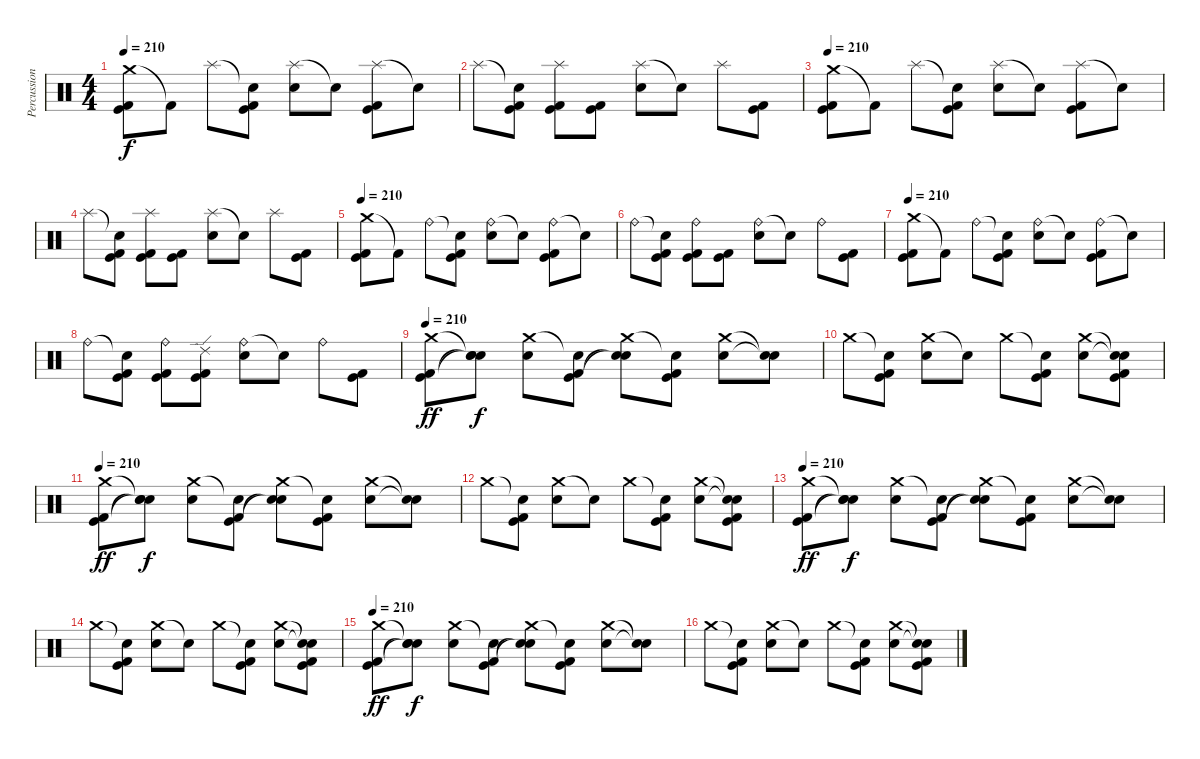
\track ("Percussion" "Percussion") {instrument percussion}
\staff {score}
\articulation defaults
\ts (4 4)
\tempo 210
\clef neutral
\ks c
("Crash medium (hit)" "Kick (hit)" "Kick (hit) 2").8{dy f} "Kick (hit) 2"{t}.8 "Splash (hit)".8 ("Snare (hit)"{t} "Kick (hit)" "Kick (hit) 2").8 ("Splash (hit)" "Electric Snare (hit)").8 "Snare (hit)"{t}.8 ("Splash (hit)" "Kick (hit)" "Kick (hit) 2").8 "Snare (hit)"{t}.8 |
"Splash (hit)".8 ("Snare (hit)"{t} "Kick (hit)" "Kick (hit) 2").8 ("Splash (hit)" "Kick (hit)" "Kick (hit) 2").8 ("Kick (hit)" "Kick (hit) 2").8 ("Splash (hit)" "Electric Snare (hit)").8 "Snare (hit)"{t}.8 "Splash (hit)".8 ("Kick (hit)" "Kick (hit) 2").8 |
\tempo 210
("Crash medium (hit)" "Kick (hit)" "Kick (hit) 2").8 "Kick (hit) 2"{t}.8 "Splash (hit)".8 ("Snare (hit)"{t} "Kick (hit)" "Kick (hit) 2").8 ("Splash (hit)" "Electric Snare (hit)").8 "Snare (hit)"{t}.8 ("Splash (hit)" "Kick (hit)" "Kick (hit) 2").8 "Snare (hit)"{t}.8 |
"Splash (hit)".8 ("Snare (hit)"{t} "Kick (hit)" "Kick (hit) 2").8 ("Splash (hit)" "Kick (hit)" "Kick (hit) 2").8 ("Kick (hit)" "Kick (hit) 2").8 ("Splash (hit)" "Electric Snare (hit)").8 "Snare (hit)"{t}.8 "Splash (hit)".8 ("Kick (hit)" "Kick (hit) 2").8 |
\tempo 210
("Crash medium (hit)" "Kick (hit)" "Kick (hit) 2").8 "Kick (hit) 2"{t}.8 "Ride (bell)".8 ("Snare (hit)"{t} "Kick (hit)" "Kick (hit) 2").8 ("Ride (bell)" "Electric Snare (hit)").8 "Snare (hit)"{t}.8 ("Ride (bell)" "Kick (hit)" "Kick (hit) 2").8 "Snare (hit)"{t}.8 |
"Ride (bell)".8 ("Snare (hit)"{t} "Kick (hit)" "Kick (hit) 2").8 ("Ride (bell)" "Kick (hit)" "Kick (hit) 2").8 ("Kick (hit)" "Kick (hit) 2").8 ("Ride (bell)" "Electric Snare (hit)").8 "Snare (hit)"{t}.8 "Ride (bell)".8 ("Kick (hit)" "Kick (hit) 2").8 |
\tempo 210
("Crash medium (hit)" "Kick (hit)" "Kick (hit) 2").8 "Kick (hit) 2"{t}.8 "Ride (bell)".8 ("Snare (hit)"{t} "Kick (hit)" "Kick (hit) 2").8 ("Ride (bell)" "Electric Snare (hit)").8 "Snare (hit)"{t}.8 ("Ride (bell)" "Kick (hit)" "Kick (hit) 2").8 "Snare (hit)"{t}.8 |
"Ride (bell)".8 ("Snare (hit)"{t} "Kick (hit)" "Kick (hit) 2").8 ("Ride (bell)" "Kick (hit)" "Kick (hit) 2").8 ("Ride (edge) 2" "Kick (hit)" "Kick (hit) 2").8 ("Ride (bell)" "Electric Snare (hit)").8 "Snare (hit)"{t}.8 "Ride (bell)".8 ("Kick (hit)" "Kick (hit) 2").8 |
\tempo 210
("Crash medium (hit)" "Kick (hit)" "Kick (hit) 2").8{dy ff} ("Snare (hit)"{t} "Snare (hit)"{t} "Snare (hit)"{t}).8{dy f} ("Crash medium (hit)" "Electric Snare (hit)").8 ("Snare (hit)"{t} "Kick (hit)" "Kick (hit) 2").8 ("Crash medium (hit)" "Snare (hit)"{t} "Snare (hit)"{t}).8 ("Snare (hit)"{t} "Kick (hit)" "Kick (hit) 2").8 ("Crash medium (hit)" "Electric Snare (hit)").8 ("Snare (hit)"{t} "Snare (hit)"{t}).8 |
"Crash medium (hit)".8 ("Snare (hit)"{t} "Kick (hit)" "Kick (hit) 2").8 ("Crash medium (hit)" "Electric Snare (hit)").8 "Snare (hit)"{t}.8 "Crash medium (hit)".8 ("Snare (hit)"{t} "Kick (hit)" "Kick (hit) 2").8 ("Crash medium (hit)" "Electric Snare (hit)").8 ("Snare (hit)"{t} "Snare (hit)"{t} "Kick (hit)" "Kick (hit) 2").8 |
\tempo 210
("Crash medium (hit)" "Kick (hit)" "Kick (hit) 2").8{dy ff} ("Snare (hit)"{t} "Snare (hit)"{t} "Snare (hit)"{t}).8{dy f} ("Crash medium (hit)" "Electric Snare (hit)").8 ("Snare (hit)"{t} "Kick (hit)" "Kick (hit) 2").8 ("Crash medium (hit)" "Snare (hit)"{t} "Snare (hit)"{t}).8 ("Snare (hit)"{t} "Kick (hit)" "Kick (hit) 2").8 ("Crash medium (hit)" "Electric Snare (hit)").8 ("Snare (hit)"{t} "Snare (hit)"{t}).8 |
"Crash medium (hit)".8 ("Snare (hit)"{t} "Kick (hit)" "Kick (hit) 2").8 ("Crash medium (hit)" "Electric Snare (hit)").8 "Snare (hit)"{t}.8 "Crash medium (hit)".8 ("Snare (hit)"{t} "Kick (hit)" "Kick (hit) 2").8 ("Crash medium (hit)" "Electric Snare (hit)").8 ("Snare (hit)"{t} "Snare (hit)"{t} "Kick (hit)" "Kick (hit) 2").8 |
\tempo 210
("Crash medium (hit)" "Kick (hit)" "Kick (hit) 2").8{dy ff} ("Snare (hit)"{t} "Snare (hit)"{t} "Snare (hit)"{t}).8{dy f} ("Crash medium (hit)" "Electric Snare (hit)").8 ("Snare (hit)"{t} "Kick (hit)" "Kick (hit) 2").8 ("Crash medium (hit)" "Snare (hit)"{t} "Snare (hit)"{t}).8 ("Snare (hit)"{t} "Kick (hit)" "Kick (hit) 2").8 ("Crash medium (hit)" "Electric Snare (hit)").8 ("Snare (hit)"{t} "Snare (hit)"{t}).8 |
"Crash medium (hit)".8 ("Snare (hit)"{t} "Kick (hit)" "Kick (hit) 2").8 ("Crash medium (hit)" "Electric Snare (hit)").8 "Snare (hit)"{t}.8 "Crash medium (hit)".8 ("Snare (hit)"{t} "Kick (hit)" "Kick (hit) 2").8 ("Crash medium (hit)" "Electric Snare (hit)").8 ("Snare (hit)"{t} "Snare (hit)"{t} "Kick (hit)" "Kick (hit) 2").8 |
\tempo 210
("Crash medium (hit)" "Kick (hit)" "Kick (hit) 2").8{dy ff} ("Snare (hit)"{t} "Snare (hit)"{t} "Snare (hit)"{t}).8{dy f} ("Crash medium (hit)" "Electric Snare (hit)").8 ("Snare (hit)"{t} "Kick (hit)" "Kick (hit) 2").8 ("Crash medium (hit)" "Snare (hit)"{t} "Snare (hit)"{t}).8 ("Snare (hit)"{t} "Kick (hit)" "Kick (hit) 2").8 ("Crash medium (hit)" "Electric Snare (hit)").8 ("Snare (hit)"{t} "Snare (hit)"{t}).8 |
"Crash medium (hit)".8 ("Snare (hit)"{t} "Kick (hit)" "Kick (hit) 2").8 ("Crash medium (hit)" "Electric Snare (hit)").8 "Snare (hit)"{t}.8 "Crash medium (hit)".8 ("Snare (hit)"{t} "Kick (hit)" "Kick (hit) 2").8 ("Crash medium (hit)" "Electric Snare (hit)").8 ("Snare (hit)"{t} "Snare (hit)"{t} "Kick (hit)" "Kick (hit) 2").8
